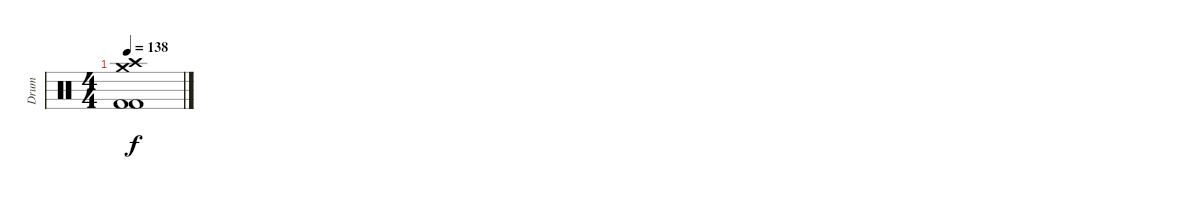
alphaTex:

\track ("Drum" "Drum") {instrument percussion}
\staff {score}
\articulation defaults
\ts (4 4)
\tempo 138
\clef neutral
\ks c
("Kick (hit) 2" "Kick (hit) 2" "Crash high (hit)" "Crash medium (hit)").1{dy f}
